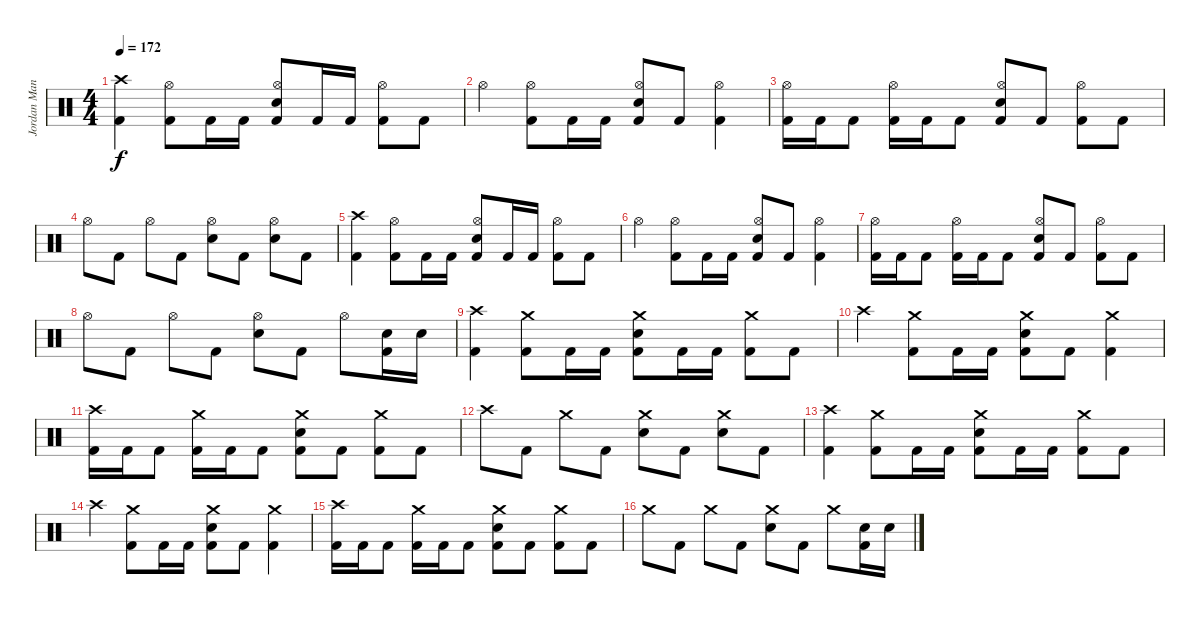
\track ("Jordan Mancino" "Jordan Man") {instrument percussion}
\staff {score}
\articulation defaults
\ts (4 4)
\tempo 172
\clef neutral
\ks c
("Crash high (hit)" "Kick (hit) 2").4{dy f} ("Hi-Hat (open)" "Kick (hit) 2").8 "Kick (hit) 2".16 "Kick (hit) 2".16 ("Hi-Hat (open)" "Electric Snare (hit)" "Kick (hit) 2").8 "Kick (hit) 2".16 "Kick (hit) 2".16 ("Hi-Hat (open)" "Kick (hit) 2").8 "Kick (hit) 2".8 |
"Hi-Hat (open)".4 ("Hi-Hat (open)" "Kick (hit) 2").8 "Kick (hit) 2".16 "Kick (hit) 2".16 ("Hi-Hat (open)" "Electric Snare (hit)" "Kick (hit) 2").8 "Kick (hit) 2".8 ("Hi-Hat (open)" "Kick (hit) 2").4 |
("Hi-Hat (open)" "Kick (hit) 2").16 "Kick (hit) 2".16 "Kick (hit) 2".8 ("Hi-Hat (open)" "Kick (hit) 2").16 "Kick (hit) 2".16 "Kick (hit) 2".8 ("Hi-Hat (open)" "Electric Snare (hit)" "Kick (hit) 2").8 "Kick (hit) 2".8 ("Hi-Hat (open)" "Kick (hit) 2").8 "Kick (hit) 2".8 |
"Hi-Hat (open)".8 "Kick (hit) 2".8 "Hi-Hat (open)".8 "Kick (hit) 2".8 ("Hi-Hat (open)" "Electric Snare (hit)").8 "Kick (hit) 2".8 ("Hi-Hat (open)" "Electric Snare (hit)").8 "Kick (hit) 2".8 |
("Crash high (hit)" "Kick (hit) 2").4 ("Hi-Hat (open)" "Kick (hit) 2").8 "Kick (hit) 2".16 "Kick (hit) 2".16 ("Hi-Hat (open)" "Electric Snare (hit)" "Kick (hit) 2").8 "Kick (hit) 2".16 "Kick (hit) 2".16 ("Hi-Hat (open)" "Kick (hit) 2").8 "Kick (hit) 2".8 |
"Hi-Hat (open)".4 ("Hi-Hat (open)" "Kick (hit) 2").8 "Kick (hit) 2".16 "Kick (hit) 2".16 ("Hi-Hat (open)" "Electric Snare (hit)" "Kick (hit) 2").8 "Kick (hit) 2".8 ("Hi-Hat (open)" "Kick (hit) 2").4 |
("Hi-Hat (open)" "Kick (hit) 2").16 "Kick (hit) 2".16 "Kick (hit) 2".8 ("Hi-Hat (open)" "Kick (hit) 2").16 "Kick (hit) 2".16 "Kick (hit) 2".8 ("Hi-Hat (open)" "Electric Snare (hit)" "Kick (hit) 2").8 "Kick (hit) 2".8 ("Hi-Hat (open)" "Kick (hit) 2").8 "Kick (hit) 2".8 |
"Hi-Hat (open)".8 "Kick (hit) 2".8 "Hi-Hat (open)".8 "Kick (hit) 2".8 ("Hi-Hat (open)" "Electric Snare (hit)").8 "Kick (hit) 2".8 "Hi-Hat (open)".8 ("Electric Snare (hit)" "Kick (hit) 2").16 "Electric Snare (hit)".16 |
("Crash high (hit)" "Kick (hit) 2").4 ("Crash medium (hit)" "Kick (hit) 2").8 "Kick (hit) 2".16 "Kick (hit) 2".16 ("Crash medium (hit)" "Electric Snare (hit)" "Kick (hit) 2").8 "Kick (hit) 2".16 "Kick (hit) 2".16 ("Crash medium (hit)" "Kick (hit) 2").8 "Kick (hit) 2".8 |
"Crash high (hit)".4 ("Crash medium (hit)" "Kick (hit) 2").8 "Kick (hit) 2".16 "Kick (hit) 2".16 ("Crash medium (hit)" "Electric Snare (hit)" "Kick (hit) 2").8 "Kick (hit) 2".8 ("Crash medium (hit)" "Kick (hit) 2").4 |
("Crash high (hit)" "Kick (hit) 2").16 "Kick (hit) 2".16 "Kick (hit) 2".8 ("Crash medium (hit)" "Kick (hit) 2").16 "Kick (hit) 2".16 "Kick (hit) 2".8 ("Crash medium (hit)" "Electric Snare (hit)" "Kick (hit) 2").8 "Kick (hit) 2".8 ("Crash medium (hit)" "Kick (hit) 2").8 "Kick (hit) 2".8 |
"Crash high (hit)".8 "Kick (hit) 2".8 "Crash medium (hit)".8 "Kick (hit) 2".8 ("Crash medium (hit)" "Electric Snare (hit)").8 "Kick (hit) 2".8 ("Crash medium (hit)" "Electric Snare (hit)").8 "Kick (hit) 2".8 |
("Crash high (hit)" "Kick (hit) 2").4 ("Crash medium (hit)" "Kick (hit) 2").8 "Kick (hit) 2".16 "Kick (hit) 2".16 ("Crash medium (hit)" "Electric Snare (hit)" "Kick (hit) 2").8 "Kick (hit) 2".16 "Kick (hit) 2".16 ("Crash medium (hit)" "Kick (hit) 2").8 "Kick (hit) 2".8 |
"Crash high (hit)".4 ("Crash medium (hit)" "Kick (hit) 2").8 "Kick (hit) 2".16 "Kick (hit) 2".16 ("Crash medium (hit)" "Electric Snare (hit)" "Kick (hit) 2").8 "Kick (hit) 2".8 ("Crash medium (hit)" "Kick (hit) 2").4 |
("Crash high (hit)" "Kick (hit) 2").16 "Kick (hit) 2".16 "Kick (hit) 2".8 ("Crash medium (hit)" "Kick (hit) 2").16 "Kick (hit) 2".16 "Kick (hit) 2".8 ("Crash medium (hit)" "Electric Snare (hit)" "Kick (hit) 2").8 "Kick (hit) 2".8 ("Crash medium (hit)" "Kick (hit) 2").8 "Kick (hit) 2".8 |
"Crash medium (hit)".8 "Kick (hit) 2".8 "Crash medium (hit)".8 "Kick (hit) 2".8 ("Crash medium (hit)" "Electric Snare (hit)").8 "Kick (hit) 2".8 "Crash medium (hit)".8 ("Electric Snare (hit)" "Kick (hit) 2").16 "Electric Snare (hit)".16
